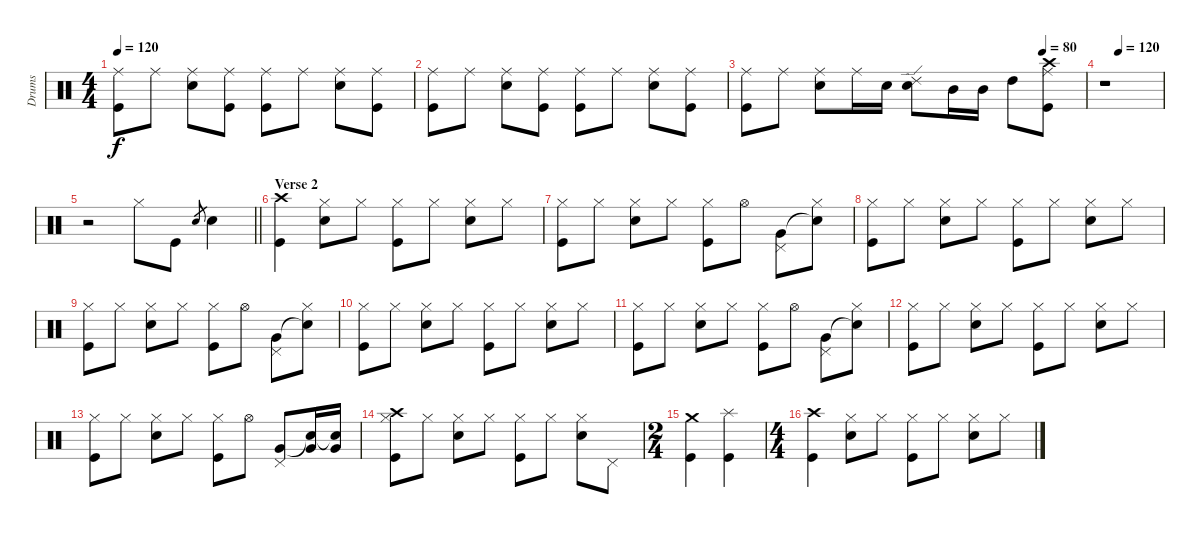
\track ("Drums" "Drums") {instrument percussion}
\staff {score}
\articulation defaults
\ts (4 4)
\tempo 120
\clef neutral
\ks c
("Ride (middle)" "Kick (hit)").8{dy f} "Ride (middle)".8 ("Ride (middle)" "Snare (hit) 2").8 ("Ride (middle)" "Kick (hit)").8 ("Ride (middle)" "Kick (hit)").8 "Ride (middle)".8 ("Ride (middle)" "Snare (hit) 2").8 ("Ride (middle)" "Kick (hit)").8 |
("Ride (middle)" "Kick (hit)").8 "Ride (middle)".8 ("Ride (middle)" "Snare (hit) 2").8 ("Ride (middle)" "Kick (hit)").8 ("Ride (middle)" "Kick (hit)").8 "Ride (middle)".8 ("Ride (middle)" "Snare (hit) 2").8 ("Ride (middle)" "Kick (hit)").8 |
\tempo (80 0.875)
("Ride (middle)" "Kick (hit)").8 "Ride (middle)".8 ("Ride (middle)" "Snare (hit) 2").8 "Ride (middle)".16 "Snare (hit) 2".16 ("Ride (edge) 2" "Snare (hit) 2").8 "Mid Tom (hit)".16 "Mid Tom (hit)".16 "High Tom (hit)".8 ("Crash high (hit)" "Ride (middle)" "Kick (hit)").8 |
\tempo (120 0.25)
r.1 |
\barLineRight lightlight
r.2 "Hi-Hat (closed)".8 "Kick (hit)".8 "Snare (hit) 2".8{gr} "Snare (hit) 2".4 |
\section ("" "Verse 2")
("Crash high (hit)" "Kick (hit)").4 ("Hi-Hat (closed)" "Snare (hit) 2").8 "Hi-Hat (closed)".8 ("Hi-Hat (closed)" "Kick (hit)").8 "Hi-Hat (closed)".8 ("Hi-Hat (closed)" "Snare (hit) 2").8 "Hi-Hat (closed)".8 |
("Hi-Hat (closed)" "Kick (hit)").8 "Hi-Hat (closed)".8 ("Hi-Hat (closed)" "Snare (hit) 2").8 "Hi-Hat (closed)".8 ("Hi-Hat (closed)" "Kick (hit)").8 "Hi-Hat (open)".8 ("Pedal Hi-Hat (hit)" "Very Low Tom (hit)").8 ("Hi-Hat (closed)" "Snare (hit)"{t}).8 |
("Hi-Hat (closed)" "Kick (hit)").8 "Hi-Hat (closed)".8 ("Hi-Hat (closed)" "Snare (hit) 2").8 "Hi-Hat (closed)".8 ("Hi-Hat (closed)" "Kick (hit)").8 "Hi-Hat (closed)".8 ("Hi-Hat (closed)" "Snare (hit) 2").8 "Hi-Hat (closed)".8 |
("Hi-Hat (closed)" "Kick (hit)").8 "Hi-Hat (closed)".8 ("Hi-Hat (closed)" "Snare (hit) 2").8 "Hi-Hat (closed)".8 ("Hi-Hat (closed)" "Kick (hit)").8 "Hi-Hat (open)".8 ("Pedal Hi-Hat (hit)" "Very Low Tom (hit)").8 ("Hi-Hat (closed)" "Snare (hit)"{t}).8 |
("Hi-Hat (closed)" "Kick (hit)").8 "Hi-Hat (closed)".8 ("Hi-Hat (closed)" "Snare (hit) 2").8 "Hi-Hat (closed)".8 ("Hi-Hat (closed)" "Kick (hit)").8 "Hi-Hat (closed)".8 ("Hi-Hat (closed)" "Snare (hit) 2").8 "Hi-Hat (closed)".8 |
("Hi-Hat (closed)" "Kick (hit)").8 "Hi-Hat (closed)".8 ("Hi-Hat (closed)" "Snare (hit) 2").8 "Hi-Hat (closed)".8 ("Hi-Hat (closed)" "Kick (hit)").8 "Hi-Hat (open)".8 ("Pedal Hi-Hat (hit)" "Very Low Tom (hit)").8 ("Hi-Hat (closed)" "Snare (hit)"{t}).8 |
("Hi-Hat (closed)" "Kick (hit)").8 "Hi-Hat (closed)".8 ("Hi-Hat (closed)" "Snare (hit) 2").8 "Hi-Hat (closed)".8 ("Hi-Hat (closed)" "Kick (hit)").8 "Hi-Hat (closed)".8 ("Hi-Hat (closed)" "Snare (hit) 2").8 "Hi-Hat (closed)".8 |
("Hi-Hat (closed)" "Kick (hit)").8 "Hi-Hat (closed)".8 ("Hi-Hat (closed)" "Snare (hit) 2").8 "Hi-Hat (closed)".8 ("Hi-Hat (closed)" "Kick (hit)").8 "Hi-Hat (open)".8 ("Pedal Hi-Hat (hit)" "Very Low Tom (hit)").8 ("Very Low Tom (hit)" "Snare (hit)"{t}).16 ("Very Low Tom (hit)" "Snare (hit)"{t}).16 |
("Crash high (hit)" "Hi-Hat (closed)" "Kick (hit)").8 "Hi-Hat (closed)".8 ("Hi-Hat (closed)" "Snare (hit) 2").8 "Hi-Hat (closed)".8 ("Hi-Hat (closed)" "Kick (hit)").8 "Hi-Hat (closed)".8 ("Hi-Hat (closed)" "Snare (hit) 2").8 "Pedal Hi-Hat (hit)".8 |
\ts (2 4)
("Crash medium (hit)" "Kick (hit)").4 ("Splash (hit)" "Kick (hit)").4 |
\ts (4 4)
("Crash high (hit)" "Kick (hit)").4 ("Hi-Hat (closed)" "Snare (hit) 2").8 "Hi-Hat (closed)".8 ("Hi-Hat (closed)" "Kick (hit)").8 "Hi-Hat (closed)".8 ("Hi-Hat (closed)" "Snare (hit) 2").8 "Hi-Hat (closed)".8
